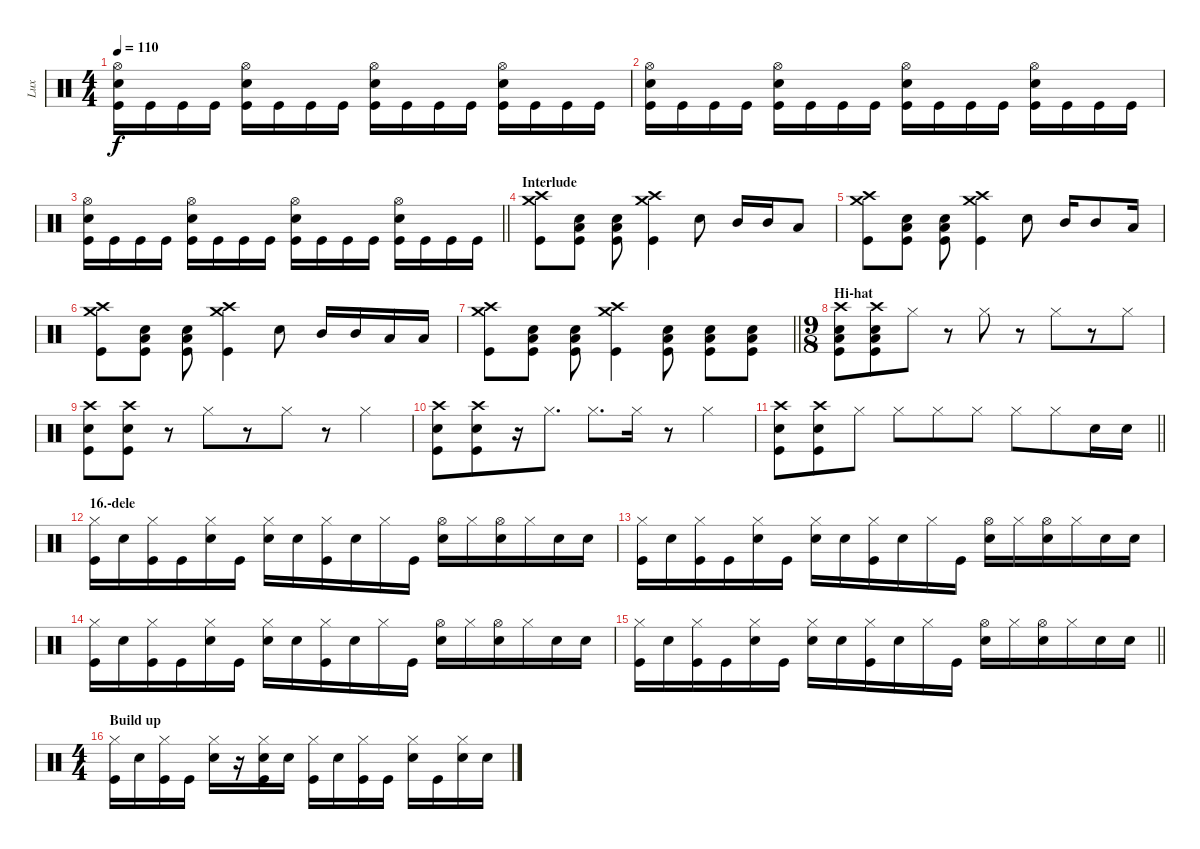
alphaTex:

\track ("Lux" "Lux") {mute instrument percussion}
\staff {score}
\articulation defaults
\ts (4 4)
\tempo 110
\clef neutral
\ks c
("Hi-Hat (open)" "Snare (hit) 2" "Kick (hit)").16{dy f} "Kick (hit)".16 "Kick (hit)".16 "Kick (hit)".16 ("Hi-Hat (open)" "Snare (hit) 2" "Kick (hit)").16 "Kick (hit)".16 "Kick (hit)".16 "Kick (hit)".16 ("Hi-Hat (open)" "Snare (hit) 2" "Kick (hit)").16 "Kick (hit)".16 "Kick (hit)".16 "Kick (hit)".16 ("Hi-Hat (open)" "Snare (hit) 2" "Kick (hit)").16 "Kick (hit)".16 "Kick (hit)".16 "Kick (hit)".16 |
("Hi-Hat (open)" "Snare (hit) 2" "Kick (hit)").16 "Kick (hit)".16 "Kick (hit)".16 "Kick (hit)".16 ("Hi-Hat (open)" "Snare (hit) 2" "Kick (hit)").16 "Kick (hit)".16 "Kick (hit)".16 "Kick (hit)".16 ("Hi-Hat (open)" "Snare (hit) 2" "Kick (hit)").16 "Kick (hit)".16 "Kick (hit)".16 "Kick (hit)".16 ("Hi-Hat (open)" "Snare (hit) 2" "Kick (hit)").16 "Kick (hit)".16 "Kick (hit)".16 "Kick (hit)".16 |
\barLineRight lightlight
("Hi-Hat (open)" "Snare (hit) 2" "Kick (hit)").16 "Kick (hit)".16 "Kick (hit)".16 "Kick (hit)".16 ("Hi-Hat (open)" "Snare (hit) 2" "Kick (hit)").16 "Kick (hit)".16 "Kick (hit)".16 "Kick (hit)".16 ("Hi-Hat (open)" "Snare (hit) 2" "Kick (hit)").16 "Kick (hit)".16 "Kick (hit)".16 "Kick (hit)".16 ("Hi-Hat (open)" "Snare (hit) 2" "Kick (hit)").16 "Kick (hit)".16 "Kick (hit)".16 "Kick (hit)".16 |
\section ("" "Interlude")
("Crash high (hit)" "Crash medium (hit)" "Kick (hit)").8 ("Low Tom (hit)" "Snare (hit) 2" "Kick (hit)").8 ("Low Tom (hit)" "Snare (hit) 2" "Kick (hit)").8 ("Crash high (hit)" "Crash medium (hit)" "Kick (hit)").4 "Snare (hit) 2".8 "Mid Tom (hit)".16 "Mid Tom (hit)".16 "Low Tom (hit)".8 |
("Crash high (hit)" "Crash medium (hit)" "Kick (hit)").8 ("Low Tom (hit)" "Snare (hit) 2" "Kick (hit)").8 ("Low Tom (hit)" "Snare (hit) 2" "Kick (hit)").8 ("Crash high (hit)" "Crash medium (hit)" "Kick (hit)").4 "Snare (hit) 2".8 "Mid Tom (hit)".16 "Mid Tom (hit)".8 "Low Tom (hit)".16 |
("Crash high (hit)" "Crash medium (hit)" "Kick (hit)").8 ("Low Tom (hit)" "Snare (hit) 2" "Kick (hit)").8 ("Low Tom (hit)" "Snare (hit) 2" "Kick (hit)").8 ("Crash high (hit)" "Crash medium (hit)" "Kick (hit)").4 "Snare (hit) 2".8 "Mid Tom (hit)".16 "Mid Tom (hit)".16 "Low Tom (hit)".16 "Low Tom (hit)".16 |
\barLineRight lightlight
("Crash high (hit)" "Crash medium (hit)" "Kick (hit)").8 ("Low Tom (hit)" "Snare (hit) 2" "Kick (hit)").8 ("Low Tom (hit)" "Snare (hit) 2" "Kick (hit)").8 ("Crash high (hit)" "Crash medium (hit)" "Kick (hit)").4 ("Low Tom (hit)" "Snare (hit) 2" "Kick (hit)").8 ("Low Tom (hit)" "Snare (hit) 2" "Kick (hit)").8 ("Low Tom (hit)" "Snare (hit) 2" "Kick (hit)").8 |
\ts (9 8)
\section ("" "Hi-hat")
("Crash high (hit)" "Low Tom (hit)" "Snare (hit) 2" "Kick (hit)").8 ("Crash high (hit)" "Low Tom (hit)" "Snare (hit) 2" "Kick (hit)").8 "Hi-Hat (closed)".8 r.8 "Hi-Hat (closed)".8 r.8 "Hi-Hat (closed)".8 r.8 "Hi-Hat (closed)".8 |
("Crash high (hit)" "Snare (hit) 2" "Kick (hit)").8 ("Crash high (hit)" "Snare (hit) 2" "Kick (hit)").8 r.8 "Hi-Hat (closed)".8 r.8 "Hi-Hat (closed)".8 r.8 "Hi-Hat (closed)".4 |
("Crash high (hit)" "Snare (hit) 2" "Kick (hit)").8 ("Crash high (hit)" "Snare (hit) 2" "Kick (hit)").8 r.16 "Hi-Hat (closed)".8{d} "Hi-Hat (closed)".8{d} "Hi-Hat (closed)".16 r.8 "Hi-Hat (closed)".4 |
\barLineRight lightlight
("Crash high (hit)" "Snare (hit) 2" "Kick (hit)").8 ("Crash high (hit)" "Snare (hit) 2" "Kick (hit)").8 "Hi-Hat (closed)".8 "Hi-Hat (closed)".8 "Hi-Hat (closed)".8 "Hi-Hat (closed)".8 "Hi-Hat (closed)".8 "Hi-Hat (closed)".8 "Snare (hit) 2".16 "Snare (hit) 2".16 |
\section ("" "16.-dele")
("Hi-Hat (closed)" "Kick (hit)").16 "Snare (hit) 2".16 ("Hi-Hat (closed)" "Kick (hit)").16 "Kick (hit)".16 ("Hi-Hat (closed)" "Snare (hit) 2").16 "Kick (hit)".16 ("Hi-Hat (closed)" "Snare (hit) 2").16 "Snare (hit) 2".16 ("Hi-Hat (closed)" "Kick (hit)").16 "Snare (hit) 2".16 "Hi-Hat (closed)".16 "Kick (hit)".16 ("Hi-Hat (open)" "Snare (hit) 2").16 "Hi-Hat (closed)".16 ("Hi-Hat (open)" "Snare (hit) 2").16 "Hi-Hat (closed)".16 "Snare (hit) 2".16 "Snare (hit) 2".16 |
("Hi-Hat (closed)" "Kick (hit)").16 "Snare (hit) 2".16 ("Hi-Hat (closed)" "Kick (hit)").16 "Kick (hit)".16 ("Hi-Hat (closed)" "Snare (hit) 2").16 "Kick (hit)".16 ("Hi-Hat (closed)" "Snare (hit) 2").16 "Snare (hit) 2".16 ("Hi-Hat (closed)" "Kick (hit)").16 "Snare (hit) 2".16 "Hi-Hat (closed)".16 "Kick (hit)".16 ("Hi-Hat (open)" "Snare (hit) 2").16 "Hi-Hat (closed)".16 ("Hi-Hat (open)" "Snare (hit) 2").16 "Hi-Hat (closed)".16 "Snare (hit) 2".16 "Snare (hit) 2".16 |
("Hi-Hat (closed)" "Kick (hit)").16 "Snare (hit) 2".16 ("Hi-Hat (closed)" "Kick (hit)").16 "Kick (hit)".16 ("Hi-Hat (closed)" "Snare (hit) 2").16 "Kick (hit)".16 ("Hi-Hat (closed)" "Snare (hit) 2").16 "Snare (hit) 2".16 ("Hi-Hat (closed)" "Kick (hit)").16 "Snare (hit) 2".16 "Hi-Hat (closed)".16 "Kick (hit)".16 ("Hi-Hat (open)" "Snare (hit) 2").16 "Hi-Hat (closed)".16 ("Hi-Hat (open)" "Snare (hit) 2").16 "Hi-Hat (closed)".16 "Snare (hit) 2".16 "Snare (hit) 2".16 |
\barLineRight lightlight
("Hi-Hat (closed)" "Kick (hit)").16 "Snare (hit) 2".16 ("Hi-Hat (closed)" "Kick (hit)").16 "Kick (hit)".16 ("Hi-Hat (closed)" "Snare (hit) 2").16 "Kick (hit)".16 ("Hi-Hat (closed)" "Snare (hit) 2").16 "Snare (hit) 2".16 ("Hi-Hat (closed)" "Kick (hit)").16 "Snare (hit) 2".16 "Hi-Hat (closed)".16 "Kick (hit)".16 ("Hi-Hat (open)" "Snare (hit) 2").16 "Hi-Hat (closed)".16 ("Hi-Hat (open)" "Snare (hit) 2").16 "Hi-Hat (closed)".16 "Snare (hit) 2".16 "Snare (hit) 2".16 |
\ts (4 4)
\section ("" "Build up")
("Hi-Hat (closed)" "Kick (hit)").16 "Snare (hit) 2".16 ("Hi-Hat (closed)" "Kick (hit)").16 "Kick (hit)".16 ("Hi-Hat (closed)" "Snare (hit) 2").16 r.16 ("Hi-Hat (closed)" "Snare (hit) 2" "Kick (hit)").16 "Snare (hit) 2".16 ("Hi-Hat (closed)" "Kick (hit)").16 "Snare (hit) 2".16 ("Hi-Hat (closed)" "Kick (hit)").16 "Kick (hit)".16 ("Hi-Hat (closed)" "Snare (hit) 2").16 "Kick (hit)".16 ("Hi-Hat (closed)" "Snare (hit) 2").16 "Snare (hit) 2".16
